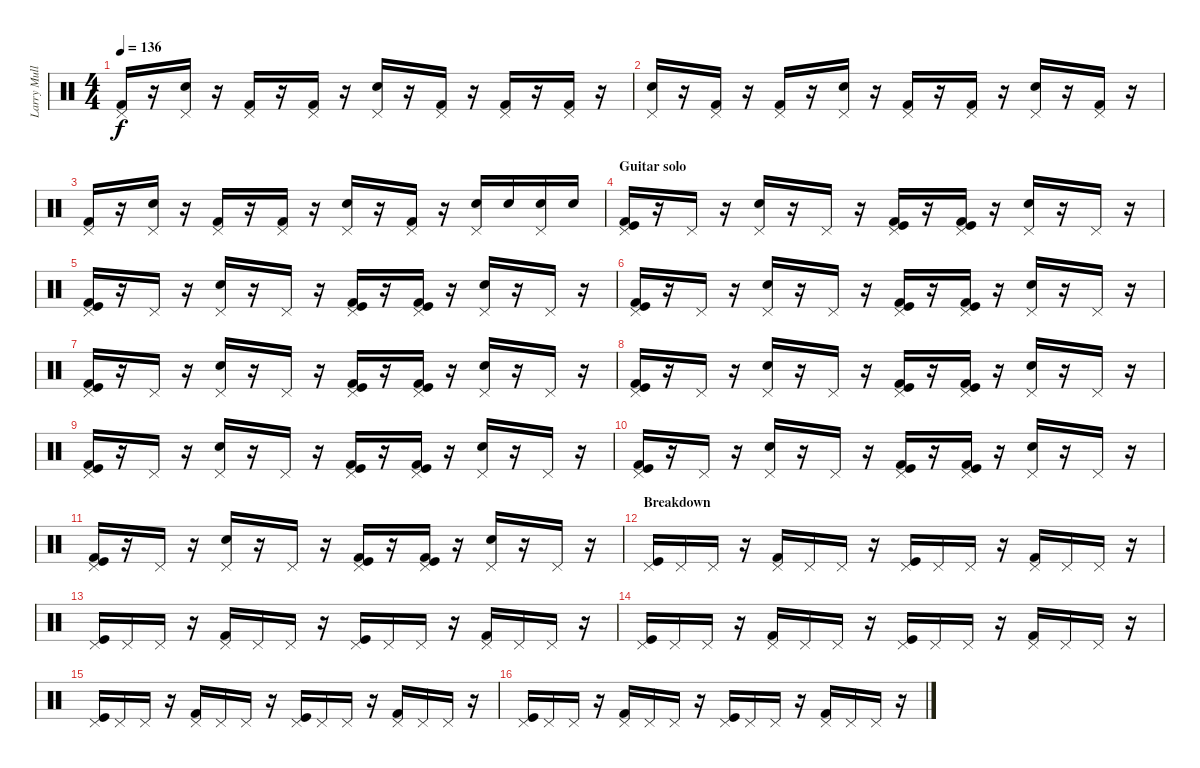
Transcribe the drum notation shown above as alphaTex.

\track ("Larry Mullen Jr." "Larry Mull") {instrument percussion}
\staff {score}
\articulation defaults
\ts (4 4)
\tempo 136
\clef neutral
\ks c
("Kick (hit) 2" "Pedal Hi-Hat (hit)").16{dy f} r.16 ("Snare (hit) 2" "Pedal Hi-Hat (hit)").16 r.16 ("Kick (hit) 2" "Pedal Hi-Hat (hit)").16 r.16 ("Kick (hit) 2" "Pedal Hi-Hat (hit)").16 r.16 ("Snare (hit) 2" "Pedal Hi-Hat (hit)").16 r.16 ("Kick (hit) 2" "Pedal Hi-Hat (hit)").16 r.16 ("Kick (hit) 2" "Pedal Hi-Hat (hit)").16 r.16 ("Kick (hit) 2" "Pedal Hi-Hat (hit)").16 r.16 |
("Snare (hit) 2" "Pedal Hi-Hat (hit)").16 r.16 ("Kick (hit) 2" "Pedal Hi-Hat (hit)").16 r.16 ("Kick (hit) 2" "Pedal Hi-Hat (hit)").16 r.16 ("Snare (hit) 2" "Pedal Hi-Hat (hit)").16 r.16 ("Kick (hit) 2" "Pedal Hi-Hat (hit)").16 r.16 ("Kick (hit) 2" "Pedal Hi-Hat (hit)").16 r.16 ("Snare (hit) 2" "Pedal Hi-Hat (hit)").16 r.16 ("Kick (hit) 2" "Pedal Hi-Hat (hit)").16 r.16 |
("Kick (hit) 2" "Pedal Hi-Hat (hit)").16 r.16 ("Snare (hit) 2" "Pedal Hi-Hat (hit)").16 r.16 ("Kick (hit) 2" "Pedal Hi-Hat (hit)").16 r.16 ("Kick (hit) 2" "Pedal Hi-Hat (hit)").16 r.16 ("Snare (hit) 2" "Pedal Hi-Hat (hit)").16 r.16 ("Kick (hit) 2" "Pedal Hi-Hat (hit)").16 r.16 ("Snare (hit) 2" "Pedal Hi-Hat (hit)").16 "Snare (hit) 2".16 ("Snare (hit) 2" "Pedal Hi-Hat (hit)").16 "Snare (hit) 2".16 |
\section ("" "Guitar solo")
("Kick (hit) 2" "Kick (hit)" "Pedal Hi-Hat (hit)").16 r.16 "Pedal Hi-Hat (hit)".16 r.16 ("Electric Snare (hit)" "Pedal Hi-Hat (hit)").16 r.16 "Pedal Hi-Hat (hit)".16 r.16 ("Kick (hit) 2" "Kick (hit)" "Pedal Hi-Hat (hit)").16 r.16 ("Kick (hit) 2" "Kick (hit)" "Pedal Hi-Hat (hit)").16 r.16 ("Electric Snare (hit)" "Pedal Hi-Hat (hit)").16 r.16 "Pedal Hi-Hat (hit)".16 r.16 |
("Kick (hit) 2" "Kick (hit)" "Pedal Hi-Hat (hit)").16 r.16 "Pedal Hi-Hat (hit)".16 r.16 ("Electric Snare (hit)" "Pedal Hi-Hat (hit)").16 r.16 "Pedal Hi-Hat (hit)".16 r.16 ("Kick (hit) 2" "Kick (hit)" "Pedal Hi-Hat (hit)").16 r.16 ("Kick (hit) 2" "Kick (hit)" "Pedal Hi-Hat (hit)").16 r.16 ("Electric Snare (hit)" "Pedal Hi-Hat (hit)").16 r.16 "Pedal Hi-Hat (hit)".16 r.16 |
("Kick (hit) 2" "Kick (hit)" "Pedal Hi-Hat (hit)").16 r.16 "Pedal Hi-Hat (hit)".16 r.16 ("Electric Snare (hit)" "Pedal Hi-Hat (hit)").16 r.16 "Pedal Hi-Hat (hit)".16 r.16 ("Kick (hit) 2" "Kick (hit)" "Pedal Hi-Hat (hit)").16 r.16 ("Kick (hit) 2" "Kick (hit)" "Pedal Hi-Hat (hit)").16 r.16 ("Electric Snare (hit)" "Pedal Hi-Hat (hit)").16 r.16 "Pedal Hi-Hat (hit)".16 r.16 |
("Kick (hit) 2" "Kick (hit)" "Pedal Hi-Hat (hit)").16 r.16 "Pedal Hi-Hat (hit)".16 r.16 ("Electric Snare (hit)" "Pedal Hi-Hat (hit)").16 r.16 "Pedal Hi-Hat (hit)".16 r.16 ("Kick (hit) 2" "Kick (hit)" "Pedal Hi-Hat (hit)").16 r.16 ("Kick (hit) 2" "Kick (hit)" "Pedal Hi-Hat (hit)").16 r.16 ("Electric Snare (hit)" "Pedal Hi-Hat (hit)").16 r.16 "Pedal Hi-Hat (hit)".16 r.16 |
("Kick (hit) 2" "Kick (hit)" "Pedal Hi-Hat (hit)").16 r.16 "Pedal Hi-Hat (hit)".16 r.16 ("Electric Snare (hit)" "Pedal Hi-Hat (hit)").16 r.16 "Pedal Hi-Hat (hit)".16 r.16 ("Kick (hit) 2" "Kick (hit)" "Pedal Hi-Hat (hit)").16 r.16 ("Kick (hit) 2" "Kick (hit)" "Pedal Hi-Hat (hit)").16 r.16 ("Electric Snare (hit)" "Pedal Hi-Hat (hit)").16 r.16 "Pedal Hi-Hat (hit)".16 r.16 |
("Kick (hit) 2" "Kick (hit)" "Pedal Hi-Hat (hit)").16 r.16 "Pedal Hi-Hat (hit)".16 r.16 ("Electric Snare (hit)" "Pedal Hi-Hat (hit)").16 r.16 "Pedal Hi-Hat (hit)".16 r.16 ("Kick (hit) 2" "Kick (hit)" "Pedal Hi-Hat (hit)").16 r.16 ("Kick (hit) 2" "Kick (hit)" "Pedal Hi-Hat (hit)").16 r.16 ("Electric Snare (hit)" "Pedal Hi-Hat (hit)").16 r.16 "Pedal Hi-Hat (hit)".16 r.16 |
("Kick (hit) 2" "Kick (hit)" "Pedal Hi-Hat (hit)").16 r.16 "Pedal Hi-Hat (hit)".16 r.16 ("Electric Snare (hit)" "Pedal Hi-Hat (hit)").16 r.16 "Pedal Hi-Hat (hit)".16 r.16 ("Kick (hit) 2" "Kick (hit)" "Pedal Hi-Hat (hit)").16 r.16 ("Kick (hit) 2" "Kick (hit)" "Pedal Hi-Hat (hit)").16 r.16 ("Electric Snare (hit)" "Pedal Hi-Hat (hit)").16 r.16 "Pedal Hi-Hat (hit)".16 r.16 |
("Kick (hit) 2" "Kick (hit)" "Pedal Hi-Hat (hit)").16 r.16 "Pedal Hi-Hat (hit)".16 r.16 ("Electric Snare (hit)" "Pedal Hi-Hat (hit)").16 r.16 "Pedal Hi-Hat (hit)".16 r.16 ("Kick (hit) 2" "Kick (hit)" "Pedal Hi-Hat (hit)").16 r.16 ("Kick (hit) 2" "Kick (hit)" "Pedal Hi-Hat (hit)").16 r.16 ("Electric Snare (hit)" "Pedal Hi-Hat (hit)").16 r.16 "Pedal Hi-Hat (hit)".16 r.16 |
\section ("" "Breakdown")
("Kick (hit)" "Pedal Hi-Hat (hit)").16 "Pedal Hi-Hat (hit)".16 "Pedal Hi-Hat (hit)".16 r.16 ("Kick (hit) 2" "Pedal Hi-Hat (hit)").16 "Pedal Hi-Hat (hit)".16 "Pedal Hi-Hat (hit)".16 r.16 ("Kick (hit)" "Pedal Hi-Hat (hit)").16 "Pedal Hi-Hat (hit)".16 "Pedal Hi-Hat (hit)".16 r.16 ("Kick (hit) 2" "Pedal Hi-Hat (hit)").16 "Pedal Hi-Hat (hit)".16 "Pedal Hi-Hat (hit)".16 r.16 |
("Kick (hit)" "Pedal Hi-Hat (hit)").16 "Pedal Hi-Hat (hit)".16 "Pedal Hi-Hat (hit)".16 r.16 ("Kick (hit) 2" "Pedal Hi-Hat (hit)").16 "Pedal Hi-Hat (hit)".16 "Pedal Hi-Hat (hit)".16 r.16 ("Kick (hit)" "Pedal Hi-Hat (hit)").16 "Pedal Hi-Hat (hit)".16 "Pedal Hi-Hat (hit)".16 r.16 ("Kick (hit) 2" "Pedal Hi-Hat (hit)").16 "Pedal Hi-Hat (hit)".16 "Pedal Hi-Hat (hit)".16 r.16 |
("Kick (hit)" "Pedal Hi-Hat (hit)").16 "Pedal Hi-Hat (hit)".16 "Pedal Hi-Hat (hit)".16 r.16 ("Kick (hit) 2" "Pedal Hi-Hat (hit)").16 "Pedal Hi-Hat (hit)".16 "Pedal Hi-Hat (hit)".16 r.16 ("Kick (hit)" "Pedal Hi-Hat (hit)").16 "Pedal Hi-Hat (hit)".16 "Pedal Hi-Hat (hit)".16 r.16 ("Kick (hit) 2" "Pedal Hi-Hat (hit)").16 "Pedal Hi-Hat (hit)".16 "Pedal Hi-Hat (hit)".16 r.16 |
("Kick (hit)" "Pedal Hi-Hat (hit)").16 "Pedal Hi-Hat (hit)".16 "Pedal Hi-Hat (hit)".16 r.16 ("Kick (hit) 2" "Pedal Hi-Hat (hit)").16 "Pedal Hi-Hat (hit)".16 "Pedal Hi-Hat (hit)".16 r.16 ("Kick (hit)" "Pedal Hi-Hat (hit)").16 "Pedal Hi-Hat (hit)".16 "Pedal Hi-Hat (hit)".16 r.16 ("Kick (hit) 2" "Pedal Hi-Hat (hit)").16 "Pedal Hi-Hat (hit)".16 "Pedal Hi-Hat (hit)".16 r.16 |
("Kick (hit)" "Pedal Hi-Hat (hit)").16 "Pedal Hi-Hat (hit)".16 "Pedal Hi-Hat (hit)".16 r.16 ("Kick (hit) 2" "Pedal Hi-Hat (hit)").16 "Pedal Hi-Hat (hit)".16 "Pedal Hi-Hat (hit)".16 r.16 ("Kick (hit)" "Pedal Hi-Hat (hit)").16 "Pedal Hi-Hat (hit)".16 "Pedal Hi-Hat (hit)".16 r.16 ("Kick (hit) 2" "Pedal Hi-Hat (hit)").16 "Pedal Hi-Hat (hit)".16 "Pedal Hi-Hat (hit)".16 r.16
